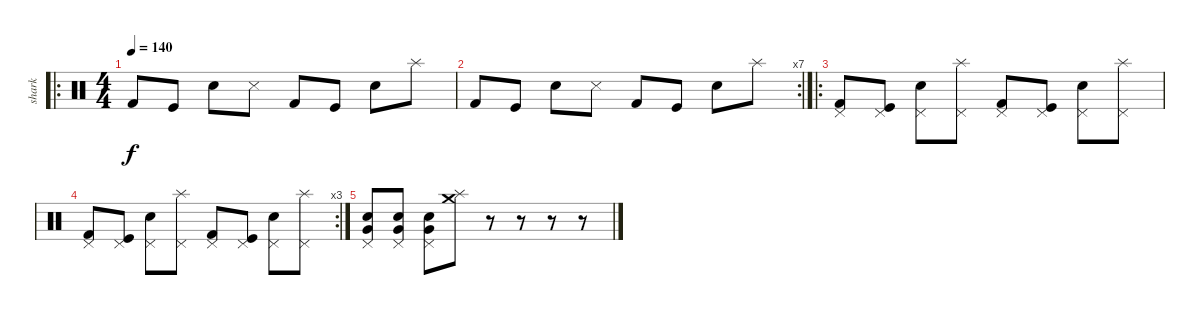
\track ("shark" "shark") {instrument percussion}
\staff {score}
\articulation defaults
\ro
\ts (4 4)
\tempo 140
\clef neutral
\ks c "Kick (hit) 2".8{dy f} "Kick (hit)".8 "Snare (hit) 2".8 "Snare (side stick) 3".8 "Kick (hit) 2".8 "Kick (hit)".8 "Snare (hit) 2".8 "Splash (hit)".8
|
\rc 7 "Kick (hit) 2".8 "Kick (hit)".8 "Snare (hit) 2".8 "Snare (side stick) 3".8 "Kick (hit) 2".8 "Kick (hit)".8 "Snare (hit) 2".8 "Splash (hit)".8
|
\ro
("Pedal Hi-Hat (hit)" "Kick (hit) 2").8 ("Pedal Hi-Hat (hit)" "Kick (hit)").8 ("Pedal Hi-Hat (hit)" "Snare (hit) 2").8 ("Pedal Hi-Hat (hit)" "Splash (hit)").8 ("Pedal Hi-Hat (hit)" "Kick (hit) 2").8 ("Pedal Hi-Hat (hit)" "Kick (hit)").8 ("Pedal Hi-Hat (hit)" "Snare (hit) 2").8 ("Pedal Hi-Hat (hit)" "Splash (hit)").8 |
\rc 3
("Pedal Hi-Hat (hit)" "Kick (hit) 2").8 ("Pedal Hi-Hat (hit)" "Kick (hit)").8 ("Pedal Hi-Hat (hit)" "Snare (hit) 2").8 ("Pedal Hi-Hat (hit)" "Splash (hit)").8 ("Pedal Hi-Hat (hit)" "Kick (hit) 2").8 ("Pedal Hi-Hat (hit)" "Kick (hit)").8 ("Pedal Hi-Hat (hit)" "Snare (hit) 2").8 ("Pedal Hi-Hat (hit)" "Splash (hit)").8 |
("Snare (hit) 2" "Pedal Hi-Hat (hit)" "Very Low Tom (hit)").8 ("Snare (hit) 2" "Pedal Hi-Hat (hit)" "Very Low Tom (hit)").8 ("Snare (hit) 2" "Pedal Hi-Hat (hit)" "Very Low Tom (hit)").8 ("Splash (hit)" "Crash medium (hit)").8 r.8 r.8 r.8 r.8
